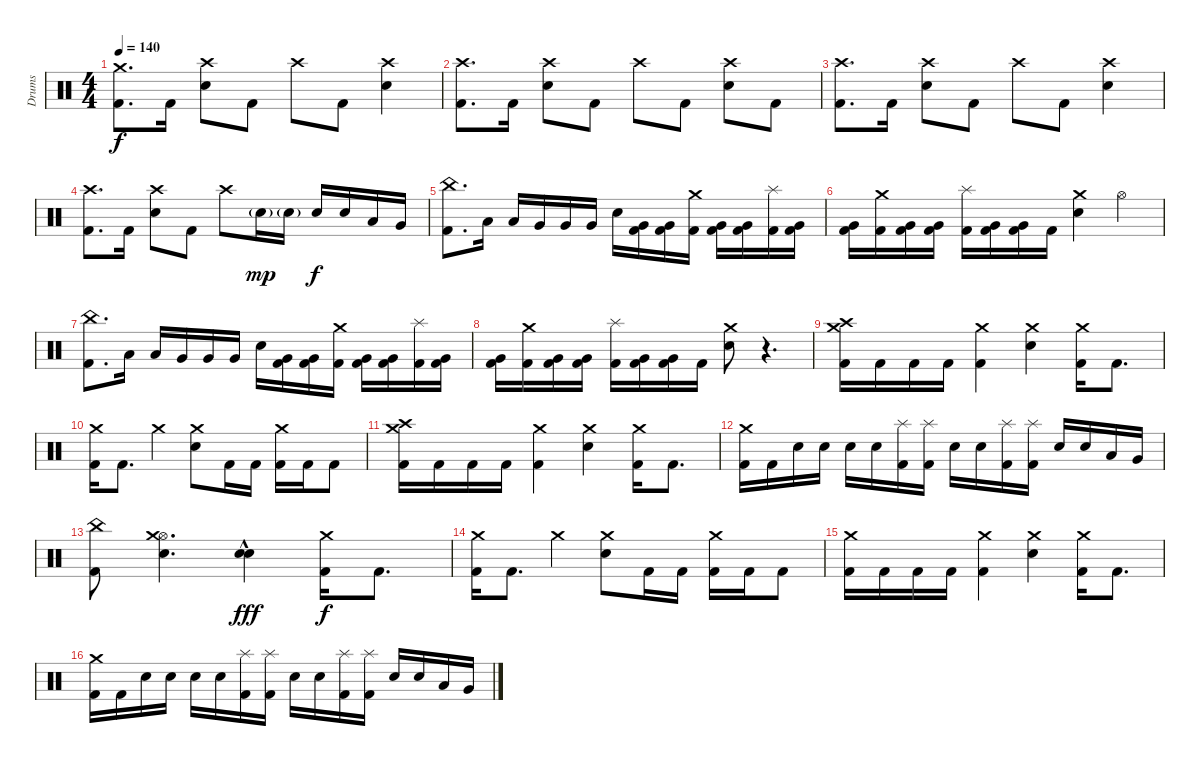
\track ("Drums" "Drums") {instrument percussion}
\staff {score}
\articulation defaults
\ts (4 4)
\tempo 140
\clef neutral
\ks c
("Crash medium (hit)" "Kick (hit) 2").8{d dy f} "Kick (hit) 2".16 ("Crash high (hit)" "Electric Snare (hit)").8 "Kick (hit) 2".8 "Crash high (hit)".8 "Kick (hit) 2".8 ("Crash high (hit)" "Electric Snare (hit)").4 |
("Crash high (hit)" "Kick (hit) 2").8{d} "Kick (hit) 2".16 ("Crash high (hit)" "Electric Snare (hit)").8 "Kick (hit) 2".8 "Crash high (hit)".8 "Kick (hit) 2".8 ("Crash high (hit)" "Electric Snare (hit)").8 "Kick (hit) 2".8 |
("Crash high (hit)" "Kick (hit) 2").8{d} "Kick (hit) 2".16 ("Crash high (hit)" "Electric Snare (hit)").8 "Kick (hit) 2".8 "Crash high (hit)".8 "Kick (hit) 2".8 ("Crash high (hit)" "Electric Snare (hit)").4 |
("Crash high (hit)" "Kick (hit) 2").8{d} "Kick (hit) 2".16 ("Crash high (hit)" "Electric Snare (hit)").8 "Kick (hit) 2".8 "Crash high (hit)".8 "Electric Snare (hit)"{g}.16{dy mp} "Electric Snare (hit)"{g}.16 "Electric Snare (hit)".16{dy f} "Electric Snare (hit)".16 "Low Tom (hit)".16 "Very Low Tom (hit)".16 |
("China (hit)" "Kick (hit) 2").8{d} "Low Tom (hit)".16 "Low Tom (hit)".16 "Very Low Tom (hit)".16 "Very Low Tom (hit)".16 "Very Low Tom (hit)".16 "Electric Snare (hit)".16 ("Very Low Tom (hit)" "Kick (hit) 2").16 ("Very Low Tom (hit)" "Kick (hit) 2").16 ("Crash medium (hit)" "Kick (hit) 2").16 ("Very Low Tom (hit)" "Kick (hit) 2").16 ("Very Low Tom (hit)" "Kick (hit) 2").16 ("Splash (hit)" "Kick (hit) 2").16 ("Very Low Tom (hit)" "Kick (hit) 2").16 |
("Very Low Tom (hit)" "Kick (hit) 2").16 ("Crash medium (hit)" "Kick (hit) 2").16 ("Very Low Tom (hit)" "Kick (hit) 2").16 ("Very Low Tom (hit)" "Kick (hit) 2").16 ("Splash (hit)" "Kick (hit) 2").16 ("Very Low Tom (hit)" "Kick (hit) 2").16 ("Very Low Tom (hit)" "Kick (hit) 2").16 "Kick (hit) 2".16 ("Crash medium (hit)" "Electric Snare (hit)").4 "Hi-Hat (open)".4 |
("China (hit)" "Kick (hit) 2").8{d} "Low Tom (hit)".16 "Low Tom (hit)".16 "Very Low Tom (hit)".16 "Very Low Tom (hit)".16 "Very Low Tom (hit)".16 "Electric Snare (hit)".16 ("Very Low Tom (hit)" "Kick (hit) 2").16 ("Very Low Tom (hit)" "Kick (hit) 2").16 ("Crash medium (hit)" "Kick (hit) 2").16 ("Very Low Tom (hit)" "Kick (hit) 2").16 ("Very Low Tom (hit)" "Kick (hit) 2").16 ("Splash (hit)" "Kick (hit) 2").16 ("Very Low Tom (hit)" "Kick (hit) 2").16 |
("Very Low Tom (hit)" "Kick (hit) 2").16 ("Crash medium (hit)" "Kick (hit) 2").16 ("Very Low Tom (hit)" "Kick (hit) 2").16 ("Very Low Tom (hit)" "Kick (hit) 2").16 ("Splash (hit)" "Kick (hit) 2").16 ("Very Low Tom (hit)" "Kick (hit) 2").16 ("Very Low Tom (hit)" "Kick (hit) 2").16 "Kick (hit) 2".16 ("Crash medium (hit)" "Electric Snare (hit)").8 r.4{d volume 0} |
("Crash medium (hit)" "Crash high (hit)" "Kick (hit) 2").16{volume 16} "Kick (hit) 2".16 "Kick (hit) 2".16 "Kick (hit) 2".16 ("Crash medium (hit)" "Kick (hit) 2").4 ("Crash medium (hit)" "Electric Snare (hit)").4 ("Crash medium (hit)" "Kick (hit) 2").16 "Kick (hit) 2".8{d} |
("Crash medium (hit)" "Kick (hit) 2").16 "Kick (hit) 2".8{d} "Crash medium (hit)".4 ("Crash medium (hit)" "Electric Snare (hit)").8 "Kick (hit) 2".16 "Kick (hit) 2".16 ("Crash medium (hit)" "Kick (hit) 2").16 "Kick (hit) 2".16 "Kick (hit) 2".8 |
("Crash medium (hit)" "Crash high (hit)" "Kick (hit) 2").16 "Kick (hit) 2".16 "Kick (hit) 2".16 "Kick (hit) 2".16 ("Crash medium (hit)" "Kick (hit) 2").4 ("Crash medium (hit)" "Electric Snare (hit)").4 ("Crash medium (hit)" "Kick (hit) 2").16 "Kick (hit) 2".8{d} |
("Crash medium (hit)" "Kick (hit) 2").16 "Kick (hit) 2".16 "Electric Snare (hit)".16 "Electric Snare (hit)".16 "Electric Snare (hit)".16 "Electric Snare (hit)".16 ("Splash (hit)" "Kick (hit) 2").16 ("Splash (hit)" "Kick (hit) 2").16 "Electric Snare (hit)".16 "Electric Snare (hit)".16 ("Splash (hit)" "Kick (hit) 2").16 ("Splash (hit)" "Kick (hit) 2").16 "Electric Snare (hit)".16 "Electric Snare (hit)".16 "Low Tom (hit)".16 "Very Low Tom (hit)".16 |
("China (hit)" "Kick (hit) 2").8 ("Hi-Hat (open)" "Crash medium (hit)" "Electric Snare (hit)").4{d volume 0} ("Snare (hit) 2" "Electric Snare (hit)"{hac}).4{dy fff volume 16} ("Crash medium (hit)" "Kick (hit) 2").16{dy f} "Kick (hit) 2".8{d} |
("Crash medium (hit)" "Kick (hit) 2").16 "Kick (hit) 2".8{d} "Crash medium (hit)".4 ("Crash medium (hit)" "Electric Snare (hit)").8 "Kick (hit) 2".16 "Kick (hit) 2".16 ("Crash medium (hit)" "Kick (hit) 2").16 "Kick (hit) 2".16 "Kick (hit) 2".8 |
("Crash medium (hit)" "Kick (hit) 2").16 "Kick (hit) 2".16 "Kick (hit) 2".16 "Kick (hit) 2".16 ("Crash medium (hit)" "Kick (hit) 2").4 ("Crash medium (hit)" "Electric Snare (hit)").4 ("Crash medium (hit)" "Kick (hit) 2").16 "Kick (hit) 2".8{d} |
("Crash medium (hit)" "Kick (hit) 2").16 "Kick (hit) 2".16 "Electric Snare (hit)".16 "Electric Snare (hit)".16 "Electric Snare (hit)".16 "Electric Snare (hit)".16 ("Splash (hit)" "Kick (hit) 2").16 ("Splash (hit)" "Kick (hit) 2").16 "Electric Snare (hit)".16 "Electric Snare (hit)".16 ("Splash (hit)" "Kick (hit) 2").16 ("Splash (hit)" "Kick (hit) 2").16 "Electric Snare (hit)".16 "Electric Snare (hit)".16 "Low Tom (hit)".16 "Very Low Tom (hit)".16
